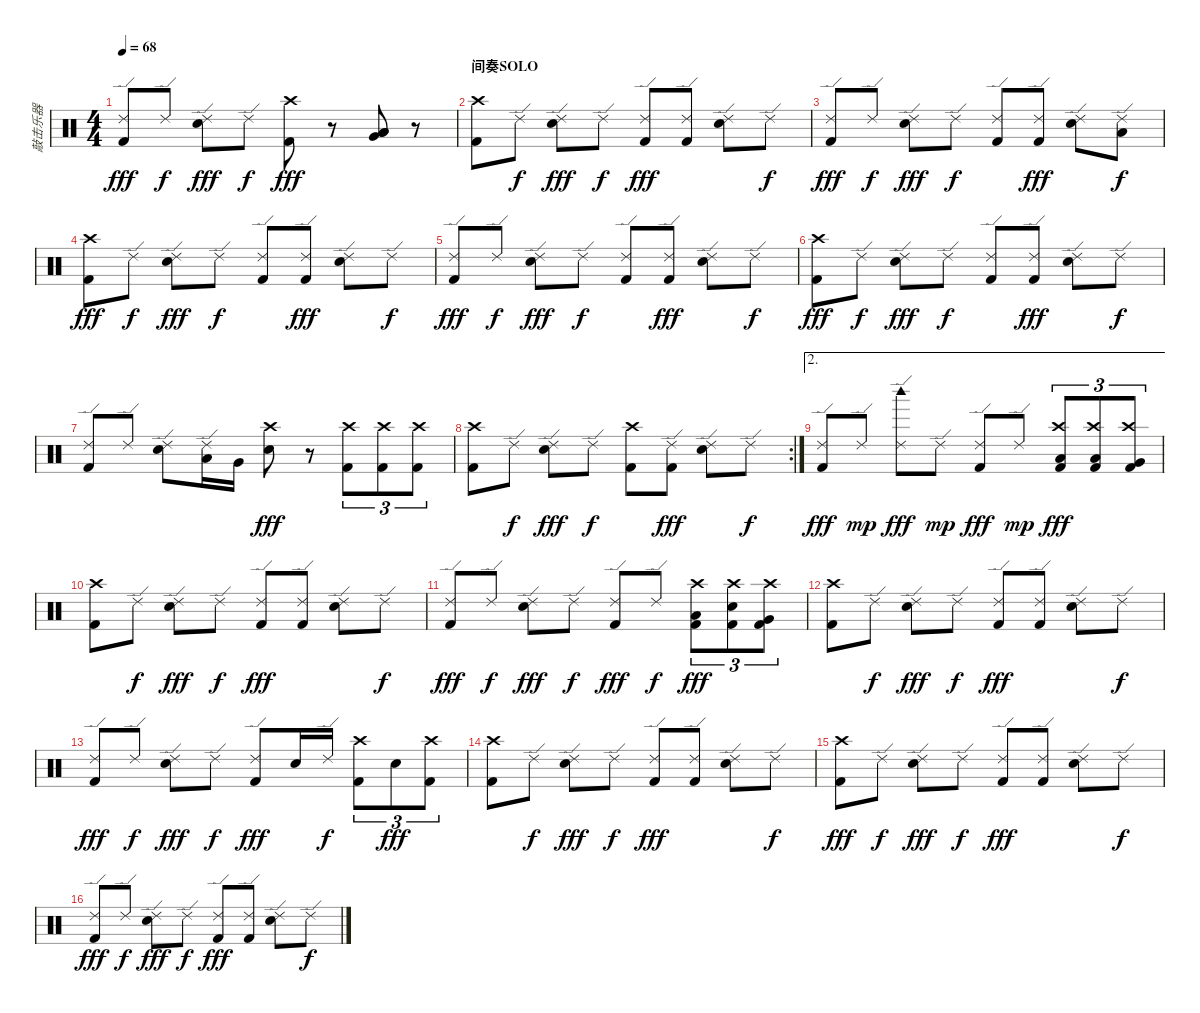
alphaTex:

\track ("敲击乐器" "敲击乐器") {instrument percussion}
\staff {score}
\articulation defaults
\ts (4 4)
\tempo 68
\clef neutral
\ks c
("Ride (edge) 2" "Kick (hit) 2").8{dy fff} "Ride (edge) 2".8{dy f} ("Ride (edge) 2" "Electric Snare (hit)").8{dy fff} "Ride (edge) 2".8{dy f} ("Crash high (hit)" "Kick (hit) 2").8{dy fff} r.8 ("Very Low Tom (hit)" "Low Tom (hit)" "Low Tom (hit)").8 r.8 |
\section ("" "间奏SOLO")
("Crash high (hit)" "Kick (hit) 2").8 "Ride (edge) 2".8{dy f} ("Ride (edge) 2" "Electric Snare (hit)").8{dy fff} "Ride (edge) 2".8{dy f} ("Ride (edge) 2" "Kick (hit) 2").8{dy fff} ("Ride (edge) 2" "Kick (hit) 2").8 ("Ride (edge) 2" "Electric Snare (hit)").8 "Ride (edge) 2".8{dy f} |
("Ride (edge) 2" "Kick (hit) 2").8{dy fff} "Ride (edge) 2".8{dy f} ("Ride (edge) 2" "Electric Snare (hit)").8{dy fff} "Ride (edge) 2".8{dy f} ("Ride (edge) 2" "Kick (hit) 2").8 ("Ride (edge) 2" "Kick (hit) 2").8{dy fff} ("Ride (edge) 2" "Electric Snare (hit)").8 ("Ride (edge) 2" "Low Tom (hit)").8{dy f} |
("Crash high (hit)" "Kick (hit) 2").8{dy fff} "Ride (edge) 2".8{dy f} ("Ride (edge) 2" "Electric Snare (hit)").8{dy fff} "Ride (edge) 2".8{dy f} ("Ride (edge) 2" "Kick (hit) 2").8 ("Ride (edge) 2" "Kick (hit) 2").8{dy fff} ("Ride (edge) 2" "Electric Snare (hit)").8 "Ride (edge) 2".8{dy f} |
("Ride (edge) 2" "Kick (hit) 2").8{dy fff} "Ride (edge) 2".8{dy f} ("Ride (edge) 2" "Electric Snare (hit)").8{dy fff} "Ride (edge) 2".8{dy f} ("Ride (edge) 2" "Kick (hit) 2").8 ("Ride (edge) 2" "Kick (hit) 2").8{dy fff} ("Ride (edge) 2" "Electric Snare (hit)").8 "Ride (edge) 2".8{dy f} |
("Crash high (hit)" "Kick (hit) 2").8{dy fff} "Ride (edge) 2".8{dy f} ("Ride (edge) 2" "Electric Snare (hit)").8{dy fff} "Ride (edge) 2".8{dy f} ("Ride (edge) 2" "Kick (hit) 2").8 ("Ride (edge) 2" "Kick (hit) 2").8{dy fff} ("Ride (edge) 2" "Electric Snare (hit)").8 "Ride (edge) 2".8{dy f} |
("Ride (edge) 2" "Kick (hit) 2").8 "Ride (edge) 2".8 ("Ride (edge) 2" "Electric Snare (hit)").8 ("Ride (edge) 2" "Low Tom (hit)").16 "Very Low Tom (hit)".16 ("Crash high (hit)" "Electric Snare (hit)").8{dy fff} r.8 ("Crash high (hit)" "Kick (hit) 2").8{tu (3 2)} ("Crash high (hit)" "Kick (hit) 2").8{tu (3 2)} ("Crash high (hit)" "Kick (hit) 2").8{tu (3 2)} |
\rc 2
("Crash high (hit)" "Kick (hit) 2").8 "Ride (edge) 2".8{dy f} ("Ride (edge) 2" "Electric Snare (hit)").8{dy fff} "Ride (edge) 2".8{dy f} ("Crash high (hit)" "Kick (hit) 2").8 ("Ride (edge) 2" "Kick (hit) 2").8{dy fff} ("Ride (edge) 2" "Electric Snare (hit)").8 "Ride (edge) 2".8{dy f} |
\ae 2
("Ride (edge) 2" "Kick (hit) 2").8{dy fff} "Ride (edge) 2".8{dy mp} ("Ride (edge) 2" "Woodblock high (hit)").8{dy fff} "Ride (edge) 2".8{dy mp} ("Ride (edge) 2" "Kick (hit) 2").8{dy fff} "Ride (edge) 2".8{dy mp} ("Crash high (hit)" "Low Tom (hit)" "Kick (hit) 2").8{tu (3 2) dy fff} ("Crash high (hit)" "Low Tom (hit)" "Kick (hit) 2").8{tu (3 2)} ("Crash high (hit)" "Very Low Tom (hit)" "Kick (hit) 2").8{tu (3 2)} |
("Crash high (hit)" "Kick (hit) 2").8 "Ride (edge) 2".8{dy f} ("Ride (edge) 2" "Electric Snare (hit)").8{dy fff} "Ride (edge) 2".8{dy f} ("Ride (edge) 2" "Kick (hit) 2").8{dy fff} ("Ride (edge) 2" "Kick (hit) 2").8 ("Ride (edge) 2" "Electric Snare (hit)").8 "Ride (edge) 2".8{dy f} |
("Ride (edge) 2" "Kick (hit) 2").8{dy fff} "Ride (edge) 2".8{dy f} ("Ride (edge) 2" "Electric Snare (hit)").8{dy fff} "Ride (edge) 2".8{dy f} ("Ride (edge) 2" "Kick (hit) 2").8{dy fff} "Ride (edge) 2".8{dy f} ("Crash high (hit)" "Low Tom (hit)" "Kick (hit) 2").8{tu (3 2) dy fff} ("Crash high (hit)" "Electric Snare (hit)" "Kick (hit) 2").8{tu (3 2)} ("Crash high (hit)" "Very Low Tom (hit)" "Kick (hit) 2").8{tu (3 2)} |
("Crash high (hit)" "Kick (hit) 2").8 "Ride (edge) 2".8{dy f} ("Ride (edge) 2" "Electric Snare (hit)").8{dy fff} "Ride (edge) 2".8{dy f} ("Ride (edge) 2" "Kick (hit) 2").8{dy fff} ("Ride (edge) 2" "Kick (hit) 2").8 ("Ride (edge) 2" "Electric Snare (hit)").8 "Ride (edge) 2".8{dy f} |
("Ride (edge) 2" "Kick (hit) 2").8{dy fff} "Ride (edge) 2".8{dy f} ("Ride (edge) 2" "Electric Snare (hit)").8{dy fff} "Ride (edge) 2".8{dy f} ("Ride (edge) 2" "Kick (hit) 2").8{dy fff} "Electric Snare (hit)".16 "Ride (edge) 2".16{dy f} ("Crash high (hit)" "Kick (hit) 2").8{tu (3 2)} "Electric Snare (hit)".8{tu (3 2) dy fff} ("Crash high (hit)" "Kick (hit) 2").8{tu (3 2)} |
("Crash high (hit)" "Kick (hit) 2").8 "Ride (edge) 2".8{dy f} ("Ride (edge) 2" "Electric Snare (hit)").8{dy fff} "Ride (edge) 2".8{dy f} ("Ride (edge) 2" "Kick (hit) 2").8{dy fff} ("Ride (edge) 2" "Kick (hit) 2").8 ("Ride (edge) 2" "Electric Snare (hit)").8 "Ride (edge) 2".8{dy f} |
("Crash high (hit)" "Kick (hit) 2").8{dy fff} "Ride (edge) 2".8{dy f} ("Ride (edge) 2" "Electric Snare (hit)").8{dy fff} "Ride (edge) 2".8{dy f} ("Ride (edge) 2" "Kick (hit) 2").8{dy fff} ("Ride (edge) 2" "Kick (hit) 2").8 ("Ride (edge) 2" "Electric Snare (hit)").8 "Ride (edge) 2".8{dy f} |
("Ride (edge) 2" "Kick (hit) 2").8{dy fff} "Ride (edge) 2".8{dy f} ("Ride (edge) 2" "Electric Snare (hit)").8{dy fff} "Ride (edge) 2".8{dy f} ("Ride (edge) 2" "Kick (hit) 2").8{dy fff} ("Ride (edge) 2" "Kick (hit) 2").8 ("Ride (edge) 2" "Electric Snare (hit)").8 "Ride (edge) 2".8{dy f}
